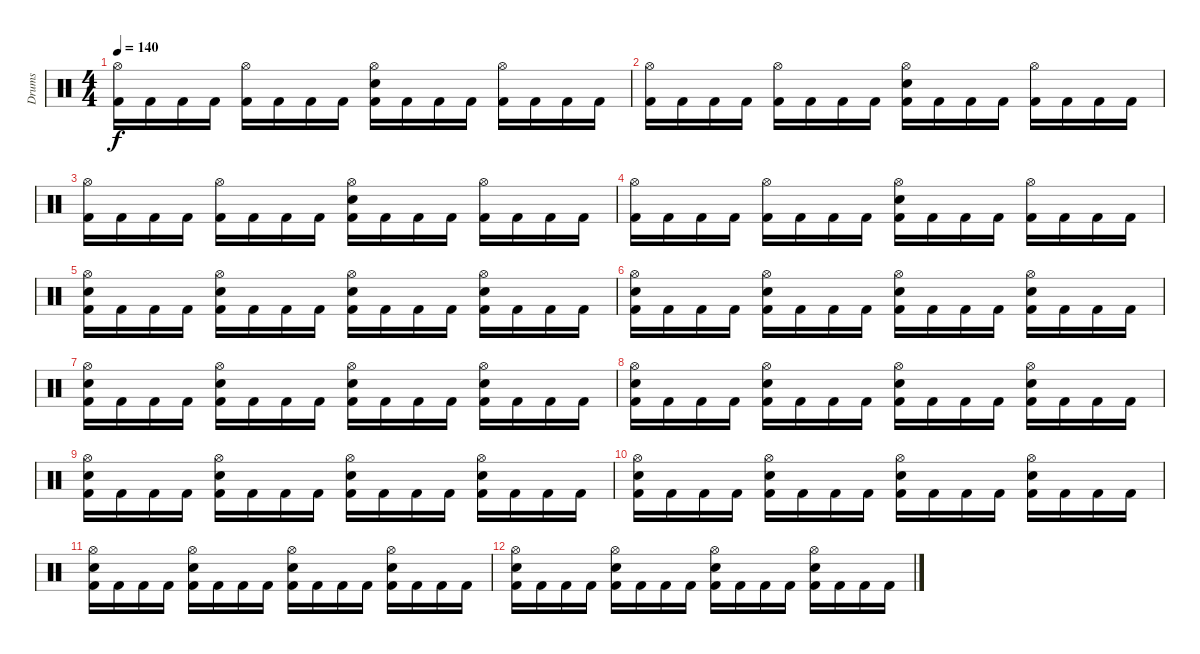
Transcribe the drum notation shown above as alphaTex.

\track ("Drums" "Drums") {instrument percussion}
\staff {score}
\articulation defaults
\ts (4 4)
\tempo 140
\clef neutral
\ks c
("Hi-Hat (open)" "Kick (hit) 2").16{dy f} "Kick (hit) 2".16 "Kick (hit) 2".16 "Kick (hit) 2".16 ("Hi-Hat (open)" "Kick (hit) 2").16 "Kick (hit) 2".16 "Kick (hit) 2".16 "Kick (hit) 2".16 ("Hi-Hat (open)" "Snare (hit) 2" "Kick (hit) 2").16 "Kick (hit) 2".16 "Kick (hit) 2".16 "Kick (hit) 2".16 ("Hi-Hat (open)" "Kick (hit) 2").16 "Kick (hit) 2".16 "Kick (hit) 2".16 "Kick (hit) 2".16 |
("Hi-Hat (open)" "Kick (hit) 2").16 "Kick (hit) 2".16 "Kick (hit) 2".16 "Kick (hit) 2".16 ("Hi-Hat (open)" "Kick (hit) 2").16 "Kick (hit) 2".16 "Kick (hit) 2".16 "Kick (hit) 2".16 ("Hi-Hat (open)" "Snare (hit) 2" "Kick (hit) 2").16 "Kick (hit) 2".16 "Kick (hit) 2".16 "Kick (hit) 2".16 ("Hi-Hat (open)" "Kick (hit) 2").16 "Kick (hit) 2".16 "Kick (hit) 2".16 "Kick (hit) 2".16 |
("Hi-Hat (open)" "Kick (hit) 2").16 "Kick (hit) 2".16 "Kick (hit) 2".16 "Kick (hit) 2".16 ("Hi-Hat (open)" "Kick (hit) 2").16 "Kick (hit) 2".16 "Kick (hit) 2".16 "Kick (hit) 2".16 ("Hi-Hat (open)" "Snare (hit) 2" "Kick (hit) 2").16 "Kick (hit) 2".16 "Kick (hit) 2".16 "Kick (hit) 2".16 ("Hi-Hat (open)" "Kick (hit) 2").16 "Kick (hit) 2".16 "Kick (hit) 2".16 "Kick (hit) 2".16 |
("Hi-Hat (open)" "Kick (hit) 2").16 "Kick (hit) 2".16 "Kick (hit) 2".16 "Kick (hit) 2".16 ("Hi-Hat (open)" "Kick (hit) 2").16 "Kick (hit) 2".16 "Kick (hit) 2".16 "Kick (hit) 2".16 ("Hi-Hat (open)" "Snare (hit) 2" "Kick (hit) 2").16 "Kick (hit) 2".16 "Kick (hit) 2".16 "Kick (hit) 2".16 ("Hi-Hat (open)" "Kick (hit) 2").16 "Kick (hit) 2".16 "Kick (hit) 2".16 "Kick (hit) 2".16 |
("Hi-Hat (open)" "Snare (hit) 2" "Kick (hit) 2").16 "Kick (hit) 2".16 "Kick (hit) 2".16 "Kick (hit) 2".16 ("Hi-Hat (open)" "Snare (hit) 2" "Kick (hit) 2").16 "Kick (hit) 2".16 "Kick (hit) 2".16 "Kick (hit) 2".16 ("Hi-Hat (open)" "Snare (hit) 2" "Kick (hit) 2").16 "Kick (hit) 2".16 "Kick (hit) 2".16 "Kick (hit) 2".16 ("Hi-Hat (open)" "Snare (hit) 2" "Kick (hit) 2").16 "Kick (hit) 2".16 "Kick (hit) 2".16 "Kick (hit) 2".16 |
("Hi-Hat (open)" "Snare (hit) 2" "Kick (hit) 2").16 "Kick (hit) 2".16 "Kick (hit) 2".16 "Kick (hit) 2".16 ("Hi-Hat (open)" "Snare (hit) 2" "Kick (hit) 2").16 "Kick (hit) 2".16 "Kick (hit) 2".16 "Kick (hit) 2".16 ("Hi-Hat (open)" "Snare (hit) 2" "Kick (hit) 2").16 "Kick (hit) 2".16 "Kick (hit) 2".16 "Kick (hit) 2".16 ("Hi-Hat (open)" "Snare (hit) 2" "Kick (hit) 2").16 "Kick (hit) 2".16 "Kick (hit) 2".16 "Kick (hit) 2".16 |
("Hi-Hat (open)" "Snare (hit) 2" "Kick (hit) 2").16 "Kick (hit) 2".16 "Kick (hit) 2".16 "Kick (hit) 2".16 ("Hi-Hat (open)" "Snare (hit) 2" "Kick (hit) 2").16 "Kick (hit) 2".16 "Kick (hit) 2".16 "Kick (hit) 2".16 ("Hi-Hat (open)" "Snare (hit) 2" "Kick (hit) 2").16 "Kick (hit) 2".16 "Kick (hit) 2".16 "Kick (hit) 2".16 ("Hi-Hat (open)" "Snare (hit) 2" "Kick (hit) 2").16 "Kick (hit) 2".16 "Kick (hit) 2".16 "Kick (hit) 2".16 |
("Hi-Hat (open)" "Snare (hit) 2" "Kick (hit) 2").16 "Kick (hit) 2".16 "Kick (hit) 2".16 "Kick (hit) 2".16 ("Hi-Hat (open)" "Snare (hit) 2" "Kick (hit) 2").16 "Kick (hit) 2".16 "Kick (hit) 2".16 "Kick (hit) 2".16 ("Hi-Hat (open)" "Snare (hit) 2" "Kick (hit) 2").16 "Kick (hit) 2".16 "Kick (hit) 2".16 "Kick (hit) 2".16 ("Hi-Hat (open)" "Snare (hit) 2" "Kick (hit) 2").16 "Kick (hit) 2".16 "Kick (hit) 2".16 "Kick (hit) 2".16 |
("Hi-Hat (open)" "Snare (hit) 2" "Kick (hit) 2").16 "Kick (hit) 2".16 "Kick (hit) 2".16 "Kick (hit) 2".16 ("Hi-Hat (open)" "Snare (hit) 2" "Kick (hit) 2").16 "Kick (hit) 2".16 "Kick (hit) 2".16 "Kick (hit) 2".16 ("Hi-Hat (open)" "Snare (hit) 2" "Kick (hit) 2").16 "Kick (hit) 2".16 "Kick (hit) 2".16 "Kick (hit) 2".16 ("Hi-Hat (open)" "Snare (hit) 2" "Kick (hit) 2").16 "Kick (hit) 2".16 "Kick (hit) 2".16 "Kick (hit) 2".16 |
("Hi-Hat (open)" "Snare (hit) 2" "Kick (hit) 2").16 "Kick (hit) 2".16 "Kick (hit) 2".16 "Kick (hit) 2".16 ("Hi-Hat (open)" "Snare (hit) 2" "Kick (hit) 2").16 "Kick (hit) 2".16 "Kick (hit) 2".16 "Kick (hit) 2".16 ("Hi-Hat (open)" "Snare (hit) 2" "Kick (hit) 2").16 "Kick (hit) 2".16 "Kick (hit) 2".16 "Kick (hit) 2".16 ("Hi-Hat (open)" "Snare (hit) 2" "Kick (hit) 2").16 "Kick (hit) 2".16 "Kick (hit) 2".16 "Kick (hit) 2".16 |
("Hi-Hat (open)" "Snare (hit) 2" "Kick (hit) 2").16 "Kick (hit) 2".16 "Kick (hit) 2".16 "Kick (hit) 2".16 ("Hi-Hat (open)" "Snare (hit) 2" "Kick (hit) 2").16 "Kick (hit) 2".16 "Kick (hit) 2".16 "Kick (hit) 2".16 ("Hi-Hat (open)" "Snare (hit) 2" "Kick (hit) 2").16 "Kick (hit) 2".16 "Kick (hit) 2".16 "Kick (hit) 2".16 ("Hi-Hat (open)" "Snare (hit) 2" "Kick (hit) 2").16 "Kick (hit) 2".16 "Kick (hit) 2".16 "Kick (hit) 2".16 |
("Hi-Hat (open)" "Snare (hit) 2" "Kick (hit) 2").16 "Kick (hit) 2".16 "Kick (hit) 2".16 "Kick (hit) 2".16 ("Hi-Hat (open)" "Snare (hit) 2" "Kick (hit) 2").16 "Kick (hit) 2".16 "Kick (hit) 2".16 "Kick (hit) 2".16 ("Hi-Hat (open)" "Snare (hit) 2" "Kick (hit) 2").16 "Kick (hit) 2".16 "Kick (hit) 2".16 "Kick (hit) 2".16 ("Hi-Hat (open)" "Snare (hit) 2" "Kick (hit) 2").16 "Kick (hit) 2".16 "Kick (hit) 2".16 "Kick (hit) 2".16
